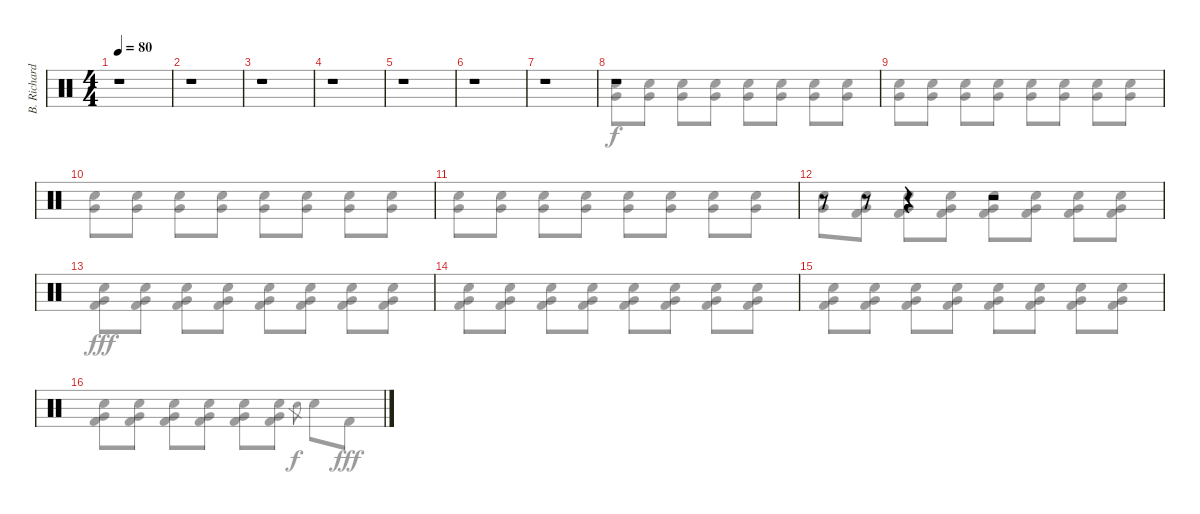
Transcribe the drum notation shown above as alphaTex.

\track ("B. Richardson Drums" "B. Richard") {instrument percussion}
\staff {score}
\articulation defaults
\voice
\ts (4 4)
\tempo 80
\clef neutral
\ks c
r.1{dy mf} |
r.1 |
r.1 |
r.1 |
r.1 |
r.1 |
r.1{volume 5} |
r.1{volume 13} |
|
|
|
r.8{volume 16} r.8{volume 5} r.4{volume 16} r.2 |
|
|
|
\voice
\clef neutral
\ottava regular
\simile none
\ks c
r.1{dy fff} |
r.1 |
r.1 |
r.1 |
r.1 |
r.1 |
r.1 |
("Electric Snare (hit)" "Very Low Tom (hit)").8{dy f} ("Electric Snare (hit)" "Very Low Tom (hit)").8 ("Electric Snare (hit)" "Very Low Tom (hit)").8 ("Electric Snare (hit)" "Very Low Tom (hit)").8 ("Electric Snare (hit)" "Very Low Tom (hit)").8 ("Electric Snare (hit)" "Very Low Tom (hit)").8 ("Electric Snare (hit)" "Very Low Tom (hit)").8 ("Electric Snare (hit)" "Very Low Tom (hit)").8 |
("Electric Snare (hit)" "Very Low Tom (hit)").8 ("Electric Snare (hit)" "Very Low Tom (hit)").8 ("Electric Snare (hit)" "Very Low Tom (hit)").8 ("Electric Snare (hit)" "Very Low Tom (hit)").8 ("Electric Snare (hit)" "Very Low Tom (hit)").8 ("Electric Snare (hit)" "Very Low Tom (hit)").8 ("Electric Snare (hit)" "Very Low Tom (hit)").8 ("Electric Snare (hit)" "Very Low Tom (hit)").8 |
("Electric Snare (hit)" "Very Low Tom (hit)").8 ("Electric Snare (hit)" "Very Low Tom (hit)").8 ("Electric Snare (hit)" "Very Low Tom (hit)").8 ("Electric Snare (hit)" "Very Low Tom (hit)").8 ("Electric Snare (hit)" "Very Low Tom (hit)").8 ("Electric Snare (hit)" "Very Low Tom (hit)").8 ("Electric Snare (hit)" "Very Low Tom (hit)").8 ("Electric Snare (hit)" "Very Low Tom (hit)").8 |
("Electric Snare (hit)" "Very Low Tom (hit)").8 ("Electric Snare (hit)" "Very Low Tom (hit)").8 ("Electric Snare (hit)" "Very Low Tom (hit)").8 ("Electric Snare (hit)" "Very Low Tom (hit)").8 ("Electric Snare (hit)" "Very Low Tom (hit)").8 ("Electric Snare (hit)" "Very Low Tom (hit)").8 ("Electric Snare (hit)" "Very Low Tom (hit)").8 ("Electric Snare (hit)" "Very Low Tom (hit)").8 |
("Electric Snare (hit)" "Very Low Tom (hit)").8 ("Electric Snare (hit)" "Very Low Tom (hit)" "Kick (hit) 2").8 ("Electric Snare (hit)" "Very Low Tom (hit)" "Kick (hit) 2").8 ("Electric Snare (hit)" "Very Low Tom (hit)" "Kick (hit) 2").8 ("Electric Snare (hit)" "Very Low Tom (hit)" "Kick (hit) 2").8 ("Electric Snare (hit)" "Very Low Tom (hit)" "Kick (hit) 2").8 ("Electric Snare (hit)" "Very Low Tom (hit)" "Kick (hit) 2").8 ("Electric Snare (hit)" "Very Low Tom (hit)" "Kick (hit) 2").8 |
("Electric Snare (hit)" "Very Low Tom (hit)" "Kick (hit) 2").8{dy fff} ("Electric Snare (hit)" "Very Low Tom (hit)" "Kick (hit) 2").8 ("Electric Snare (hit)" "Very Low Tom (hit)" "Kick (hit) 2").8 ("Electric Snare (hit)" "Very Low Tom (hit)" "Kick (hit) 2").8 ("Electric Snare (hit)" "Very Low Tom (hit)" "Kick (hit) 2").8 ("Electric Snare (hit)" "Very Low Tom (hit)" "Kick (hit) 2").8 ("Electric Snare (hit)" "Very Low Tom (hit)" "Kick (hit) 2").8 ("Electric Snare (hit)" "Very Low Tom (hit)" "Kick (hit) 2").8 |
("Electric Snare (hit)" "Very Low Tom (hit)" "Kick (hit) 2").8 ("Electric Snare (hit)" "Very Low Tom (hit)" "Kick (hit) 2").8 ("Electric Snare (hit)" "Very Low Tom (hit)" "Kick (hit) 2").8 ("Electric Snare (hit)" "Very Low Tom (hit)" "Kick (hit) 2").8 ("Electric Snare (hit)" "Very Low Tom (hit)" "Kick (hit) 2").8 ("Electric Snare (hit)" "Very Low Tom (hit)" "Kick (hit) 2").8 ("Electric Snare (hit)" "Very Low Tom (hit)" "Kick (hit) 2").8 ("Electric Snare (hit)" "Very Low Tom (hit)" "Kick (hit) 2").8 |
("Electric Snare (hit)" "Very Low Tom (hit)" "Kick (hit) 2").8 ("Electric Snare (hit)" "Very Low Tom (hit)" "Kick (hit) 2").8 ("Electric Snare (hit)" "Very Low Tom (hit)" "Kick (hit) 2").8 ("Electric Snare (hit)" "Very Low Tom (hit)" "Kick (hit) 2").8 ("Electric Snare (hit)" "Very Low Tom (hit)" "Kick (hit) 2").8 ("Electric Snare (hit)" "Very Low Tom (hit)" "Kick (hit) 2").8 ("Electric Snare (hit)" "Very Low Tom (hit)" "Kick (hit) 2").8 ("Electric Snare (hit)" "Very Low Tom (hit)" "Kick (hit) 2").8 |
("Electric Snare (hit)" "Very Low Tom (hit)" "Kick (hit) 2").8 ("Electric Snare (hit)" "Very Low Tom (hit)" "Kick (hit) 2").8 ("Electric Snare (hit)" "Very Low Tom (hit)" "Kick (hit) 2").8 ("Electric Snare (hit)" "Very Low Tom (hit)" "Kick (hit) 2").8 ("Electric Snare (hit)" "Very Low Tom (hit)" "Kick (hit) 2").8 ("Electric Snare (hit)" "Very Low Tom (hit)" "Kick (hit) 2").8 "Electric Snare (hit)".8{gr dy f} "Electric Snare (hit)".8 "Kick (hit) 2".8{dy fff}
